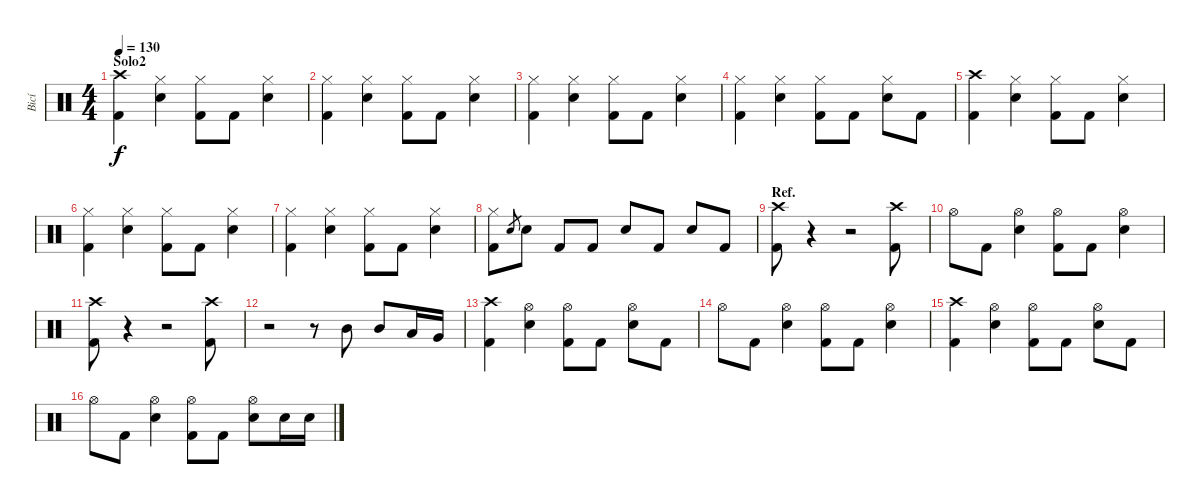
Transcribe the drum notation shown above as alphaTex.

\track ("Bicí" "Bicí") {instrument percussion}
\staff {score}
\articulation defaults
\ts (4 4)
\section ("" "Solo2")
\tempo 130
\clef neutral
\ks c
("Crash high (hit)" "Kick (hit) 2").4{dy f} ("Hi-Hat (closed)" "Snare (hit) 2").4 ("Hi-Hat (closed)" "Kick (hit) 2").8 "Kick (hit) 2".8 ("Hi-Hat (closed)" "Snare (hit) 2").4 |
("Hi-Hat (closed)" "Kick (hit) 2").4 ("Hi-Hat (closed)" "Snare (hit) 2").4 ("Hi-Hat (closed)" "Kick (hit) 2").8 "Kick (hit) 2".8 ("Hi-Hat (closed)" "Snare (hit) 2").4 |
("Hi-Hat (closed)" "Kick (hit) 2").4 ("Hi-Hat (closed)" "Snare (hit) 2").4 ("Hi-Hat (closed)" "Kick (hit) 2").8 "Kick (hit) 2".8 ("Hi-Hat (closed)" "Snare (hit) 2").4 |
("Hi-Hat (closed)" "Kick (hit) 2").4 ("Hi-Hat (closed)" "Snare (hit) 2").4 ("Hi-Hat (closed)" "Kick (hit) 2").8 "Kick (hit) 2".8 ("Hi-Hat (closed)" "Snare (hit) 2").8 "Kick (hit) 2".8 |
("Crash high (hit)" "Kick (hit) 2").4 ("Hi-Hat (closed)" "Snare (hit) 2").4 ("Hi-Hat (closed)" "Kick (hit) 2").8 "Kick (hit) 2".8 ("Hi-Hat (closed)" "Snare (hit) 2").4 |
("Hi-Hat (closed)" "Kick (hit) 2").4 ("Hi-Hat (closed)" "Snare (hit) 2").4 ("Hi-Hat (closed)" "Kick (hit) 2").8 "Kick (hit) 2".8 ("Hi-Hat (closed)" "Snare (hit) 2").4 |
("Hi-Hat (closed)" "Kick (hit) 2").4 ("Hi-Hat (closed)" "Snare (hit) 2").4 ("Hi-Hat (closed)" "Kick (hit) 2").8 "Kick (hit) 2".8 ("Hi-Hat (closed)" "Snare (hit) 2").4 |
("Hi-Hat (closed)" "Kick (hit) 2").8 "Snare (hit) 2".8{gr} "Snare (hit) 2".8 "Kick (hit) 2".8 "Kick (hit) 2".8 "Snare (hit) 2".8 "Kick (hit) 2".8 "Snare (hit) 2".8 "Kick (hit) 2".8 |
\section ("" "Ref.")
("Crash high (hit)" "Kick (hit) 2").8 r.4 r.2 ("Crash high (hit)" "Kick (hit) 2").8 |
"Hi-Hat (open)".8 "Kick (hit) 2".8 ("Hi-Hat (open)" "Snare (hit) 2").4 ("Hi-Hat (open)" "Kick (hit) 2").8 "Kick (hit) 2".8 ("Hi-Hat (open)" "Snare (hit) 2").4 |
("Crash high (hit)" "Kick (hit) 2").8 r.4 r.2 ("Crash high (hit)" "Kick (hit) 2").8 |
r.2 r.8 "Mid Tom (hit)".8 "Mid Tom (hit)".8 "Low Tom (hit)".16 "Very Low Tom (hit)".16 |
("Crash high (hit)" "Kick (hit) 2").4 ("Hi-Hat (open)" "Snare (hit) 2").4 ("Hi-Hat (open)" "Kick (hit) 2").8 "Kick (hit) 2".8 ("Hi-Hat (open)" "Snare (hit) 2").8 "Kick (hit) 2".8 |
"Hi-Hat (open)".8 "Kick (hit) 2".8 ("Hi-Hat (open)" "Snare (hit) 2").4 ("Hi-Hat (open)" "Kick (hit) 2").8 "Kick (hit) 2".8 ("Hi-Hat (open)" "Snare (hit) 2").4 |
("Crash high (hit)" "Kick (hit) 2").4 ("Hi-Hat (open)" "Snare (hit) 2").4 ("Hi-Hat (open)" "Kick (hit) 2").8 "Kick (hit) 2".8 ("Hi-Hat (open)" "Snare (hit) 2").8 "Kick (hit) 2".8 |
"Hi-Hat (open)".8 "Kick (hit) 2".8 ("Hi-Hat (open)" "Snare (hit) 2").4 ("Hi-Hat (open)" "Kick (hit) 2").8 "Kick (hit) 2".8 ("Hi-Hat (open)" "Snare (hit) 2").8 "Snare (hit) 2".16 "Snare (hit) 2".16
